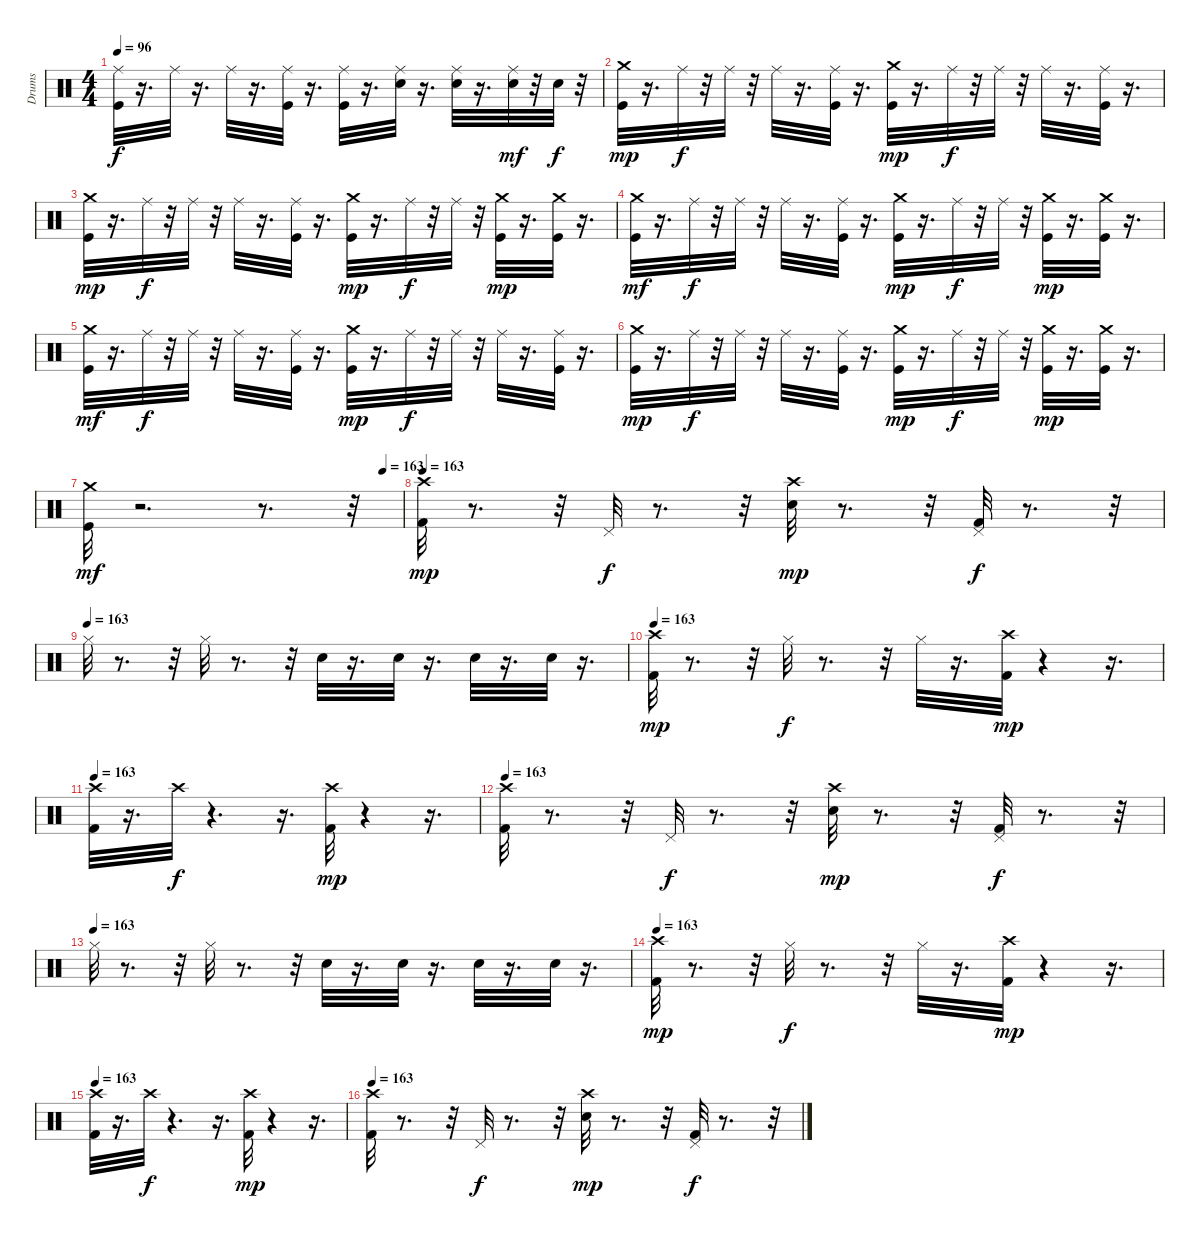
\track ("Drums" "Drums") {instrument percussion}
\staff {score}
\articulation defaults
\ts (4 4)
\tempo 96
\clef neutral
\ks c
("Kick (hit)" "Ride (middle)").32{dy f} r.16{d} "Ride (middle)".32 r.16{d} "Ride (middle)".32 r.16{d} ("Kick (hit)" "Ride (middle)").32 r.16{d} ("Kick (hit)" "Ride (middle)").32 r.16{d} ("Snare (hit) 2" "Ride (middle)").32 r.16{d} ("Snare (hit) 2" "Ride (middle)").32 r.16{d} ("Snare (hit) 2" "Ride (middle)").32{dy mf} r.32 "Snare (hit) 2".32{dy f} r.32 |
("Kick (hit)" "Crash medium (hit)").32{dy mp} r.16{d} "Ride (middle)".32{dy f} r.32 "Ride (middle)".32 r.32 "Ride (middle)".32 r.16{d} ("Kick (hit)" "Ride (middle)").32 r.16{d} ("Kick (hit)" "Crash medium (hit)").32{dy mp} r.16{d} "Ride (middle)".32{dy f} r.32 "Ride (middle)".32 r.32 "Ride (middle)".32 r.16{d} ("Kick (hit)" "Ride (middle)").32 r.16{d} |
("Kick (hit)" "Crash medium (hit)").32{dy mp} r.16{d} "Ride (middle)".32{dy f} r.32 "Ride (middle)".32 r.32 "Ride (middle)".32 r.16{d} ("Kick (hit)" "Ride (middle)").32 r.16{d} ("Kick (hit)" "Crash medium (hit)").32{dy mp} r.16{d} "Ride (middle)".32{dy f} r.32 "Ride (middle)".32 r.32 ("Kick (hit)" "Crash medium (hit)").32{dy mp} r.16{d} ("Kick (hit)" "Crash medium (hit)").32 r.16{d} |
("Kick (hit)" "Crash medium (hit)").32{dy mf} r.16{d} "Ride (middle)".32{dy f} r.32 "Ride (middle)".32 r.32 "Ride (middle)".32 r.16{d} ("Kick (hit)" "Ride (middle)").32 r.16{d} ("Kick (hit)" "Crash medium (hit)").32{dy mp} r.16{d} "Ride (middle)".32{dy f} r.32 "Ride (middle)".32 r.32 ("Kick (hit)" "Crash medium (hit)").32{dy mp} r.16{d} ("Kick (hit)" "Crash medium (hit)").32 r.16{d} |
("Kick (hit)" "Crash medium (hit)").32{dy mf} r.16{d} "Ride (middle)".32{dy f} r.32 "Ride (middle)".32 r.32 "Ride (middle)".32 r.16{d} ("Kick (hit)" "Ride (middle)").32 r.16{d} ("Kick (hit)" "Crash medium (hit)").32{dy mp} r.16{d} "Ride (middle)".32{dy f} r.32 "Ride (middle)".32 r.32 "Ride (middle)".32 r.16{d} ("Kick (hit)" "Ride (middle)").32 r.16{d} |
("Kick (hit)" "Crash medium (hit)").32{dy mp} r.16{d} "Ride (middle)".32{dy f} r.32 "Ride (middle)".32 r.32 "Ride (middle)".32 r.16{d} ("Kick (hit)" "Ride (middle)").32 r.16{d} ("Kick (hit)" "Crash medium (hit)").32{dy mp} r.16{d} "Ride (middle)".32{dy f} r.32 "Ride (middle)".32 r.32 ("Kick (hit)" "Crash medium (hit)").32{dy mp} r.16{d} ("Kick (hit)" "Crash medium (hit)").32 r.16{d} |
\tempo (163 0.9375)
("Kick (hit)" "Crash medium (hit)").32{dy mf} r.2{d} r.8{d} r.32 |
\tempo 163
("Kick (hit) 2" "Crash high (hit)").32{dy mp volume 12} r.8{d} r.32 "Pedal Hi-Hat (hit)".32{dy f} r.8{d} r.32 ("Snare (hit) 2" "Crash high (hit)").32{dy mp} r.8{d} r.32 ("Kick (hit) 2" "Pedal Hi-Hat (hit)").32{dy f} r.8{d} r.32 |
\tempo (163)
"Hi-Hat (closed)".32 r.8{d} r.32 "Hi-Hat (closed)".32 r.8{d} r.32 "Snare (hit) 2".32 r.16{d} "Snare (hit) 2".32 r.16{d} "Snare (hit) 2".32 r.16{d} "Snare (hit) 2".32 r.16{d} |
\tempo 163
("Kick (hit) 2" "Crash high (hit)").32{dy mp} r.8{d} r.32 "Hi-Hat (closed)".32{dy f} r.8{d} r.32 "Hi-Hat (closed)".32 r.16{d} ("Kick (hit) 2" "Crash high (hit)").32{dy mp} r.4 r.16{d} |
\tempo 163
("Kick (hit) 2" "Crash high (hit)").32 r.16{d} "Crash high (hit)".32{dy f} r.4{d} r.16{d} ("Kick (hit) 2" "Crash high (hit)").32{dy mp} r.4 r.16{d} |
\tempo 163
("Kick (hit) 2" "Crash high (hit)").32 r.8{d} r.32 "Pedal Hi-Hat (hit)".32{dy f} r.8{d} r.32 ("Snare (hit) 2" "Crash high (hit)").32{dy mp} r.8{d} r.32 ("Kick (hit) 2" "Pedal Hi-Hat (hit)").32{dy f} r.8{d} r.32 |
\tempo (163)
"Hi-Hat (closed)".32 r.8{d} r.32 "Hi-Hat (closed)".32 r.8{d} r.32 "Snare (hit) 2".32 r.16{d} "Snare (hit) 2".32 r.16{d} "Snare (hit) 2".32 r.16{d} "Snare (hit) 2".32 r.16{d} |
\tempo 163
("Kick (hit) 2" "Crash high (hit)").32{dy mp} r.8{d} r.32 "Hi-Hat (closed)".32{dy f} r.8{d} r.32 "Hi-Hat (closed)".32 r.16{d} ("Kick (hit) 2" "Crash high (hit)").32{dy mp} r.4 r.16{d} |
\tempo 163
("Kick (hit) 2" "Crash high (hit)").32 r.16{d} "Crash high (hit)".32{dy f} r.4{d} r.16{d} ("Kick (hit) 2" "Crash high (hit)").32{dy mp} r.4 r.16{d} |
\tempo 163
("Kick (hit) 2" "Crash high (hit)").32 r.8{d} r.32 "Pedal Hi-Hat (hit)".32{dy f} r.8{d} r.32 ("Snare (hit) 2" "Crash high (hit)").32{dy mp} r.8{d} r.32 ("Kick (hit) 2" "Pedal Hi-Hat (hit)").32{dy f} r.8{d} r.32
